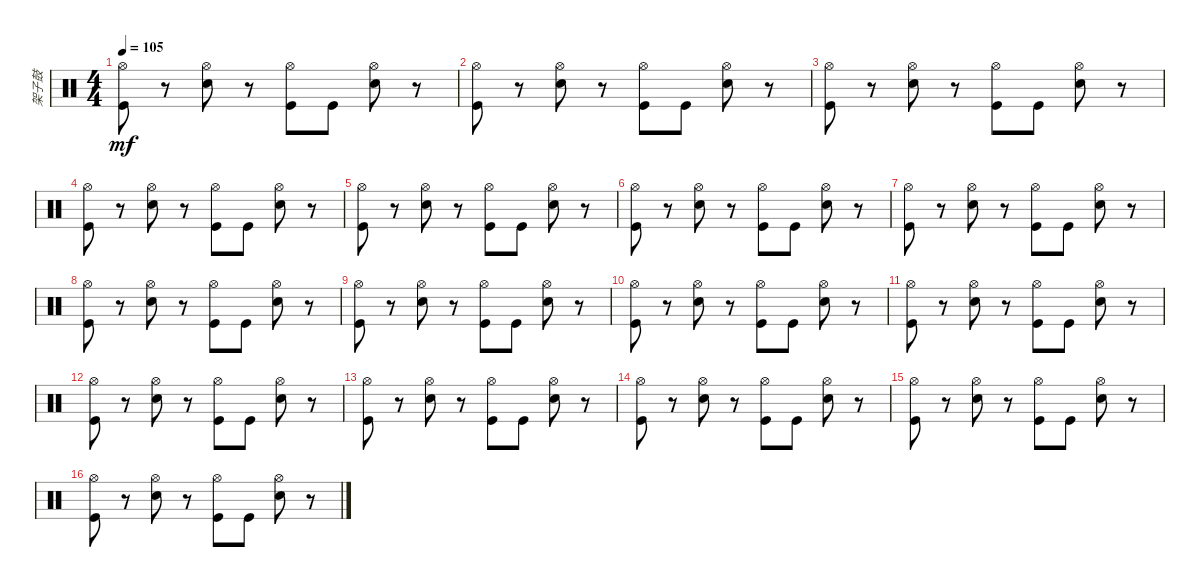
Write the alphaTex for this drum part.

\track ("架子鼓" "架子鼓") {instrument percussion}
\staff {score}
\articulation defaults
\ts (4 4)
\tempo 105
\clef neutral
\ks c
("Hi-Hat (open)" "Kick (hit)").8{dy mf} r.8 ("Hi-Hat (open)" "Snare (hit) 2").8 r.8 ("Hi-Hat (open)" "Kick (hit)").8 "Kick (hit)".8 ("Hi-Hat (open)" "Snare (hit) 2").8 r.8 |
("Hi-Hat (open)" "Kick (hit)").8 r.8 ("Hi-Hat (open)" "Snare (hit) 2").8 r.8 ("Hi-Hat (open)" "Kick (hit)").8 "Kick (hit)".8 ("Hi-Hat (open)" "Snare (hit) 2").8 r.8 |
("Hi-Hat (open)" "Kick (hit)").8 r.8 ("Hi-Hat (open)" "Snare (hit) 2").8 r.8 ("Hi-Hat (open)" "Kick (hit)").8 "Kick (hit)".8 ("Hi-Hat (open)" "Snare (hit) 2").8 r.8 |
("Hi-Hat (open)" "Kick (hit)").8 r.8 ("Hi-Hat (open)" "Snare (hit) 2").8 r.8 ("Hi-Hat (open)" "Kick (hit)").8 "Kick (hit)".8 ("Hi-Hat (open)" "Snare (hit) 2").8 r.8 |
("Hi-Hat (open)" "Kick (hit)").8 r.8 ("Hi-Hat (open)" "Snare (hit) 2").8 r.8 ("Hi-Hat (open)" "Kick (hit)").8 "Kick (hit)".8 ("Hi-Hat (open)" "Snare (hit) 2").8 r.8 |
("Hi-Hat (open)" "Kick (hit)").8 r.8 ("Hi-Hat (open)" "Snare (hit) 2").8 r.8 ("Hi-Hat (open)" "Kick (hit)").8 "Kick (hit)".8 ("Hi-Hat (open)" "Snare (hit) 2").8 r.8 |
("Hi-Hat (open)" "Kick (hit)").8 r.8 ("Hi-Hat (open)" "Snare (hit) 2").8 r.8 ("Hi-Hat (open)" "Kick (hit)").8 "Kick (hit)".8 ("Hi-Hat (open)" "Snare (hit) 2").8 r.8 |
("Hi-Hat (open)" "Kick (hit)").8 r.8 ("Hi-Hat (open)" "Snare (hit) 2").8 r.8 ("Hi-Hat (open)" "Kick (hit)").8 "Kick (hit)".8 ("Hi-Hat (open)" "Snare (hit) 2").8 r.8 |
("Hi-Hat (open)" "Kick (hit)").8 r.8 ("Hi-Hat (open)" "Snare (hit) 2").8 r.8 ("Hi-Hat (open)" "Kick (hit)").8 "Kick (hit)".8 ("Hi-Hat (open)" "Snare (hit) 2").8 r.8 |
("Hi-Hat (open)" "Kick (hit)").8 r.8 ("Hi-Hat (open)" "Snare (hit) 2").8 r.8 ("Hi-Hat (open)" "Kick (hit)").8 "Kick (hit)".8 ("Hi-Hat (open)" "Snare (hit) 2").8 r.8 |
("Hi-Hat (open)" "Kick (hit)").8 r.8 ("Hi-Hat (open)" "Snare (hit) 2").8 r.8 ("Hi-Hat (open)" "Kick (hit)").8 "Kick (hit)".8 ("Hi-Hat (open)" "Snare (hit) 2").8 r.8 |
("Hi-Hat (open)" "Kick (hit)").8 r.8 ("Hi-Hat (open)" "Snare (hit) 2").8 r.8 ("Hi-Hat (open)" "Kick (hit)").8 "Kick (hit)".8 ("Hi-Hat (open)" "Snare (hit) 2").8 r.8 |
("Hi-Hat (open)" "Kick (hit)").8 r.8 ("Hi-Hat (open)" "Snare (hit) 2").8 r.8 ("Hi-Hat (open)" "Kick (hit)").8 "Kick (hit)".8 ("Hi-Hat (open)" "Snare (hit) 2").8 r.8 |
("Hi-Hat (open)" "Kick (hit)").8 r.8 ("Hi-Hat (open)" "Snare (hit) 2").8 r.8 ("Hi-Hat (open)" "Kick (hit)").8 "Kick (hit)".8 ("Hi-Hat (open)" "Snare (hit) 2").8 r.8 |
("Hi-Hat (open)" "Kick (hit)").8 r.8 ("Hi-Hat (open)" "Snare (hit) 2").8 r.8 ("Hi-Hat (open)" "Kick (hit)").8 "Kick (hit)".8 ("Hi-Hat (open)" "Snare (hit) 2").8 r.8 |
("Hi-Hat (open)" "Kick (hit)").8 r.8 ("Hi-Hat (open)" "Snare (hit) 2").8 r.8 ("Hi-Hat (open)" "Kick (hit)").8 "Kick (hit)".8 ("Hi-Hat (open)" "Snare (hit) 2").8 r.8
